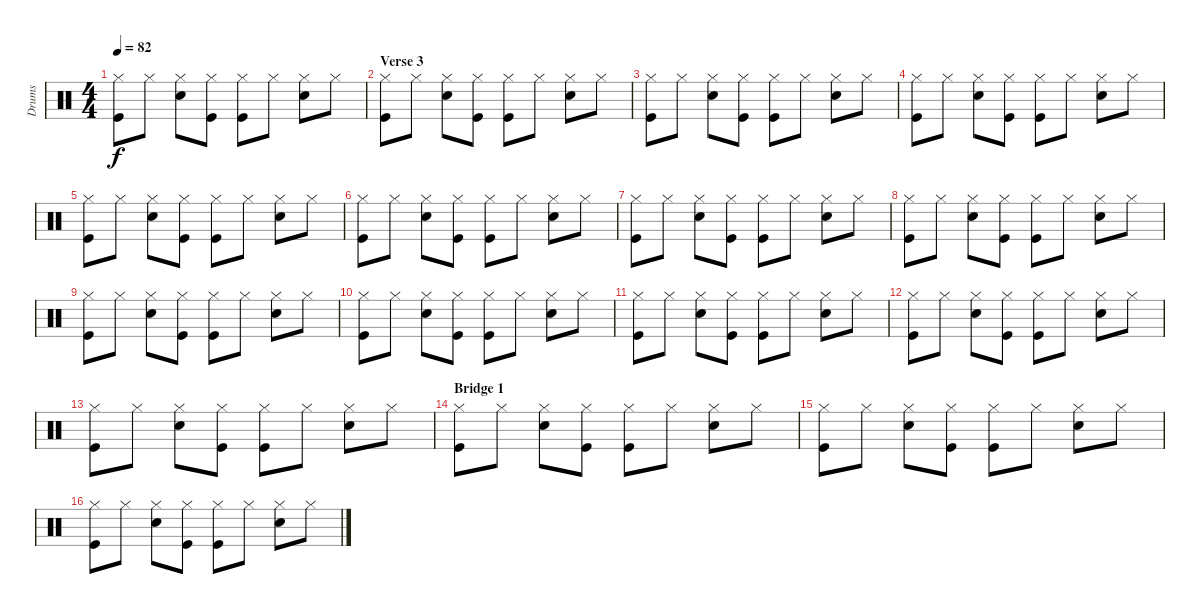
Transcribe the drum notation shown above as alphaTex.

\track ("Drums" "Drums") {instrument percussion}
\staff {score}
\articulation defaults
\ts (4 4)
\tempo 82
\clef neutral
\ks c
("Hi-Hat (closed)" "Kick (hit)").8{dy f} "Hi-Hat (closed)".8 ("Hi-Hat (closed)" "Electric Snare (hit)").8 ("Hi-Hat (closed)" "Kick (hit)").8 ("Hi-Hat (closed)" "Kick (hit)").8 "Hi-Hat (closed)".8 ("Hi-Hat (closed)" "Electric Snare (hit)").8 "Hi-Hat (closed)".8 |
\section ("" "Verse 3")
("Hi-Hat (closed)" "Kick (hit)").8 "Hi-Hat (closed)".8 ("Hi-Hat (closed)" "Electric Snare (hit)").8 ("Hi-Hat (closed)" "Kick (hit)").8 ("Hi-Hat (closed)" "Kick (hit)").8 "Hi-Hat (closed)".8 ("Hi-Hat (closed)" "Electric Snare (hit)").8 "Hi-Hat (closed)".8 |
("Hi-Hat (closed)" "Kick (hit)").8 "Hi-Hat (closed)".8 ("Hi-Hat (closed)" "Electric Snare (hit)").8 ("Hi-Hat (closed)" "Kick (hit)").8 ("Hi-Hat (closed)" "Kick (hit)").8 "Hi-Hat (closed)".8 ("Hi-Hat (closed)" "Electric Snare (hit)").8 "Hi-Hat (closed)".8 |
("Hi-Hat (closed)" "Kick (hit)").8 "Hi-Hat (closed)".8 ("Hi-Hat (closed)" "Electric Snare (hit)").8 ("Hi-Hat (closed)" "Kick (hit)").8 ("Hi-Hat (closed)" "Kick (hit)").8 "Hi-Hat (closed)".8 ("Hi-Hat (closed)" "Electric Snare (hit)").8 "Hi-Hat (closed)".8 |
("Hi-Hat (closed)" "Kick (hit)").8 "Hi-Hat (closed)".8 ("Hi-Hat (closed)" "Electric Snare (hit)").8 ("Hi-Hat (closed)" "Kick (hit)").8 ("Hi-Hat (closed)" "Kick (hit)").8 "Hi-Hat (closed)".8 ("Hi-Hat (closed)" "Electric Snare (hit)").8 "Hi-Hat (closed)".8 |
("Hi-Hat (closed)" "Kick (hit)").8 "Hi-Hat (closed)".8 ("Hi-Hat (closed)" "Electric Snare (hit)").8 ("Hi-Hat (closed)" "Kick (hit)").8 ("Hi-Hat (closed)" "Kick (hit)").8 "Hi-Hat (closed)".8 ("Hi-Hat (closed)" "Electric Snare (hit)").8 "Hi-Hat (closed)".8 |
("Hi-Hat (closed)" "Kick (hit)").8 "Hi-Hat (closed)".8 ("Hi-Hat (closed)" "Electric Snare (hit)").8 ("Hi-Hat (closed)" "Kick (hit)").8 ("Hi-Hat (closed)" "Kick (hit)").8 "Hi-Hat (closed)".8 ("Hi-Hat (closed)" "Electric Snare (hit)").8 "Hi-Hat (closed)".8 |
("Hi-Hat (closed)" "Kick (hit)").8 "Hi-Hat (closed)".8 ("Hi-Hat (closed)" "Electric Snare (hit)").8 ("Hi-Hat (closed)" "Kick (hit)").8 ("Hi-Hat (closed)" "Kick (hit)").8 "Hi-Hat (closed)".8 ("Hi-Hat (closed)" "Electric Snare (hit)").8 "Hi-Hat (closed)".8 |
("Hi-Hat (closed)" "Kick (hit)").8 "Hi-Hat (closed)".8 ("Hi-Hat (closed)" "Electric Snare (hit)").8 ("Hi-Hat (closed)" "Kick (hit)").8 ("Hi-Hat (closed)" "Kick (hit)").8 "Hi-Hat (closed)".8 ("Hi-Hat (closed)" "Electric Snare (hit)").8 "Hi-Hat (closed)".8 |
("Hi-Hat (closed)" "Kick (hit)").8 "Hi-Hat (closed)".8 ("Hi-Hat (closed)" "Electric Snare (hit)").8 ("Hi-Hat (closed)" "Kick (hit)").8 ("Hi-Hat (closed)" "Kick (hit)").8 "Hi-Hat (closed)".8 ("Hi-Hat (closed)" "Electric Snare (hit)").8 "Hi-Hat (closed)".8 |
("Hi-Hat (closed)" "Kick (hit)").8 "Hi-Hat (closed)".8 ("Hi-Hat (closed)" "Electric Snare (hit)").8 ("Hi-Hat (closed)" "Kick (hit)").8 ("Hi-Hat (closed)" "Kick (hit)").8 "Hi-Hat (closed)".8 ("Hi-Hat (closed)" "Electric Snare (hit)").8 "Hi-Hat (closed)".8 |
("Hi-Hat (closed)" "Kick (hit)").8 "Hi-Hat (closed)".8 ("Hi-Hat (closed)" "Electric Snare (hit)").8 ("Hi-Hat (closed)" "Kick (hit)").8 ("Hi-Hat (closed)" "Kick (hit)").8 "Hi-Hat (closed)".8 ("Hi-Hat (closed)" "Electric Snare (hit)").8 "Hi-Hat (closed)".8 |
("Hi-Hat (closed)" "Kick (hit)").8 "Hi-Hat (closed)".8 ("Hi-Hat (closed)" "Electric Snare (hit)").8 ("Hi-Hat (closed)" "Kick (hit)").8 ("Hi-Hat (closed)" "Kick (hit)").8 "Hi-Hat (closed)".8 ("Hi-Hat (closed)" "Electric Snare (hit)").8 "Hi-Hat (closed)".8 |
\section ("" "Bridge 1")
("Hi-Hat (closed)" "Kick (hit)").8 "Hi-Hat (closed)".8 ("Hi-Hat (closed)" "Electric Snare (hit)").8 ("Hi-Hat (closed)" "Kick (hit)").8 ("Hi-Hat (closed)" "Kick (hit)").8 "Hi-Hat (closed)".8 ("Hi-Hat (closed)" "Electric Snare (hit)").8 "Hi-Hat (closed)".8 |
("Hi-Hat (closed)" "Kick (hit)").8 "Hi-Hat (closed)".8 ("Hi-Hat (closed)" "Electric Snare (hit)").8 ("Hi-Hat (closed)" "Kick (hit)").8 ("Hi-Hat (closed)" "Kick (hit)").8 "Hi-Hat (closed)".8 ("Hi-Hat (closed)" "Electric Snare (hit)").8 "Hi-Hat (closed)".8 |
("Hi-Hat (closed)" "Kick (hit)").8 "Hi-Hat (closed)".8 ("Hi-Hat (closed)" "Electric Snare (hit)").8 ("Hi-Hat (closed)" "Kick (hit)").8 ("Hi-Hat (closed)" "Kick (hit)").8 "Hi-Hat (closed)".8 ("Hi-Hat (closed)" "Electric Snare (hit)").8 "Hi-Hat (closed)".8
